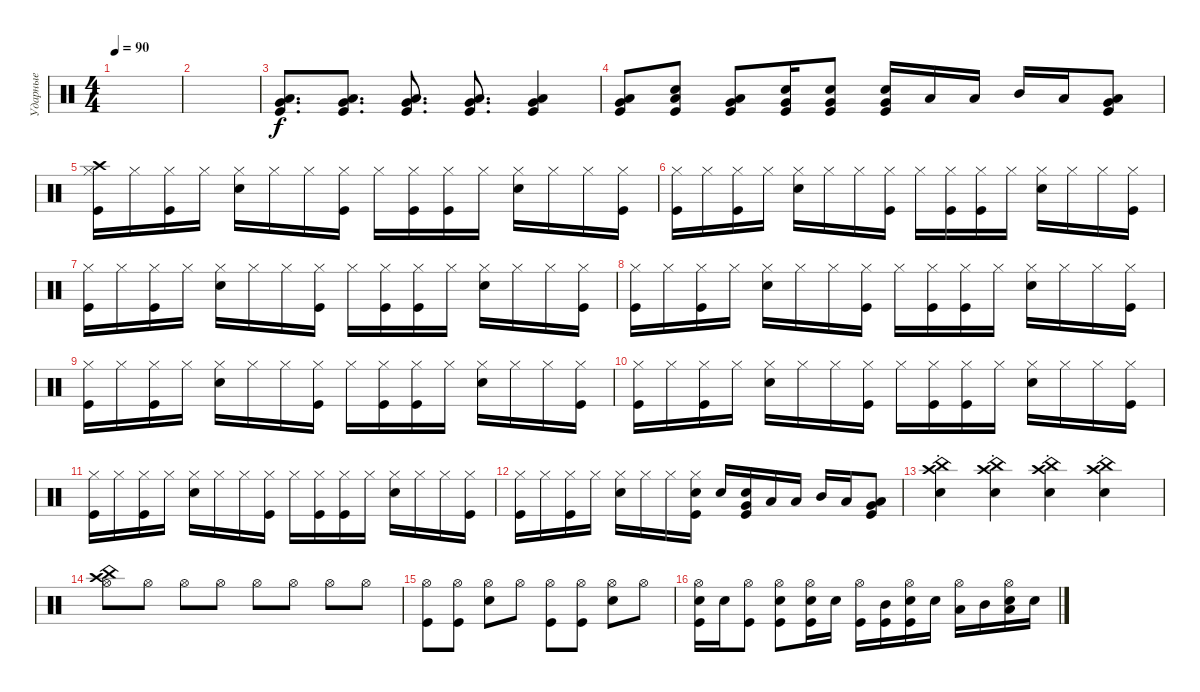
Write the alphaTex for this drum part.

\track ("Ударные" "Ударные") {instrument percussion}
\staff {score}
\articulation defaults
\ts (4 4)
\tempo 90
\clef neutral
\ks c
|
|
("Very Low Tom (hit)" "Low Floor Tom (hit)" "Kick (hit)").8{d} ("Very Low Tom (hit)" "Low Floor Tom (hit)" "Kick (hit)").8{d} ("Very Low Tom (hit)" "Low Floor Tom (hit)" "Kick (hit)").8{d} ("Very Low Tom (hit)" "Low Floor Tom (hit)" "Kick (hit)").8{d} ("Very Low Tom (hit)" "Low Floor Tom (hit)" "Kick (hit)").4 |
("Very Low Tom (hit)" "Low Floor Tom (hit)" "Kick (hit)").8 ("Low Floor Tom (hit)" "Snare (hit) 2" "Kick (hit)").8 ("Very Low Tom (hit)" "Low Floor Tom (hit)" "Kick (hit)").8 ("Snare (hit) 2" "Very Low Tom (hit)" "Kick (hit)").16 ("Snare (hit) 2" "Very Low Tom (hit)" "Kick (hit)").8 ("Snare (hit) 2" "Very Low Tom (hit)" "Kick (hit)").16 "Low Tom (hit)".16 "Low Tom (hit)".16 "Mid Tom (hit)".16 "Low Tom (hit)".16 ("Very Low Tom (hit)" "Low Floor Tom (hit)" "Kick (hit)").8 |
("Crash high (hit)" "Hi-Hat (closed)" "Kick (hit)").16 "Hi-Hat (closed)".16 ("Hi-Hat (closed)" "Kick (hit)").16 "Hi-Hat (closed)".16 ("Hi-Hat (closed)" "Snare (hit) 2").16 "Hi-Hat (closed)".16 "Hi-Hat (closed)".16 ("Hi-Hat (closed)" "Kick (hit)").16 "Hi-Hat (closed)".16 ("Hi-Hat (closed)" "Kick (hit)").16 ("Hi-Hat (closed)" "Kick (hit)").16 "Hi-Hat (closed)".16 ("Hi-Hat (closed)" "Snare (hit) 2").16 "Hi-Hat (closed)".16 "Hi-Hat (closed)".16 ("Hi-Hat (closed)" "Kick (hit)").16 |
("Hi-Hat (closed)" "Kick (hit)").16 "Hi-Hat (closed)".16 ("Hi-Hat (closed)" "Kick (hit)").16 "Hi-Hat (closed)".16 ("Hi-Hat (closed)" "Snare (hit) 2").16 "Hi-Hat (closed)".16 "Hi-Hat (closed)".16 ("Hi-Hat (closed)" "Kick (hit)").16 "Hi-Hat (closed)".16 ("Hi-Hat (closed)" "Kick (hit)").16 ("Hi-Hat (closed)" "Kick (hit)").16 "Hi-Hat (closed)".16 ("Hi-Hat (closed)" "Snare (hit) 2").16 "Hi-Hat (closed)".16 "Hi-Hat (closed)".16 ("Hi-Hat (closed)" "Kick (hit)").16 |
("Hi-Hat (closed)" "Kick (hit)").16 "Hi-Hat (closed)".16 ("Hi-Hat (closed)" "Kick (hit)").16 "Hi-Hat (closed)".16 ("Hi-Hat (closed)" "Snare (hit) 2").16 "Hi-Hat (closed)".16 "Hi-Hat (closed)".16 ("Hi-Hat (closed)" "Kick (hit)").16 "Hi-Hat (closed)".16 ("Hi-Hat (closed)" "Kick (hit)").16 ("Hi-Hat (closed)" "Kick (hit)").16 "Hi-Hat (closed)".16 ("Hi-Hat (closed)" "Snare (hit) 2").16 "Hi-Hat (closed)".16 "Hi-Hat (closed)".16 ("Hi-Hat (closed)" "Kick (hit)").16 |
("Hi-Hat (closed)" "Kick (hit)").16 "Hi-Hat (closed)".16 ("Hi-Hat (closed)" "Kick (hit)").16 "Hi-Hat (closed)".16 ("Hi-Hat (closed)" "Snare (hit) 2").16 "Hi-Hat (closed)".16 "Hi-Hat (closed)".16 ("Hi-Hat (closed)" "Kick (hit)").16 "Hi-Hat (closed)".16 ("Hi-Hat (closed)" "Kick (hit)").16 ("Hi-Hat (closed)" "Kick (hit)").16 "Hi-Hat (closed)".16 ("Hi-Hat (closed)" "Snare (hit) 2").16 "Hi-Hat (closed)".16 "Hi-Hat (closed)".16 ("Hi-Hat (closed)" "Kick (hit)").16 |
("Hi-Hat (closed)" "Kick (hit)").16 "Hi-Hat (closed)".16 ("Hi-Hat (closed)" "Kick (hit)").16 "Hi-Hat (closed)".16 ("Hi-Hat (closed)" "Snare (hit) 2").16 "Hi-Hat (closed)".16 "Hi-Hat (closed)".16 ("Hi-Hat (closed)" "Kick (hit)").16 "Hi-Hat (closed)".16 ("Hi-Hat (closed)" "Kick (hit)").16 ("Hi-Hat (closed)" "Kick (hit)").16 "Hi-Hat (closed)".16 ("Hi-Hat (closed)" "Snare (hit) 2").16 "Hi-Hat (closed)".16 "Hi-Hat (closed)".16 ("Hi-Hat (closed)" "Kick (hit)").16 |
("Hi-Hat (closed)" "Kick (hit)").16 "Hi-Hat (closed)".16 ("Hi-Hat (closed)" "Kick (hit)").16 "Hi-Hat (closed)".16 ("Hi-Hat (closed)" "Snare (hit) 2").16 "Hi-Hat (closed)".16 "Hi-Hat (closed)".16 ("Hi-Hat (closed)" "Kick (hit)").16 "Hi-Hat (closed)".16 ("Hi-Hat (closed)" "Kick (hit)").16 ("Hi-Hat (closed)" "Kick (hit)").16 "Hi-Hat (closed)".16 ("Hi-Hat (closed)" "Snare (hit) 2").16 "Hi-Hat (closed)".16 "Hi-Hat (closed)".16 ("Hi-Hat (closed)" "Kick (hit)").16 |
("Hi-Hat (closed)" "Kick (hit)").16 "Hi-Hat (closed)".16 ("Hi-Hat (closed)" "Kick (hit)").16 "Hi-Hat (closed)".16 ("Hi-Hat (closed)" "Snare (hit) 2").16 "Hi-Hat (closed)".16 "Hi-Hat (closed)".16 ("Hi-Hat (closed)" "Kick (hit)").16 "Hi-Hat (closed)".16 ("Hi-Hat (closed)" "Kick (hit)").16 ("Hi-Hat (closed)" "Kick (hit)").16 "Hi-Hat (closed)".16 ("Hi-Hat (closed)" "Snare (hit) 2").16 "Hi-Hat (closed)".16 "Hi-Hat (closed)".16 ("Hi-Hat (closed)" "Kick (hit)").16 |
("Hi-Hat (closed)" "Kick (hit)").16 "Hi-Hat (closed)".16 ("Hi-Hat (closed)" "Kick (hit)").16 "Hi-Hat (closed)".16 ("Hi-Hat (closed)" "Snare (hit) 2").16 "Hi-Hat (closed)".16 "Hi-Hat (closed)".16 ("Hi-Hat (closed)" "Kick (hit)" "Snare (hit) 2").16 "Snare (hit) 2".16 ("Snare (hit) 2" "Very Low Tom (hit)" "Kick (hit)").16 "Low Tom (hit)".16 "Low Tom (hit)".16 "Mid Tom (hit)".16 "Low Tom (hit)".16 ("Very Low Tom (hit)" "Low Floor Tom (hit)" "Kick (hit)").8 |
("Crash high (hit)"{st} "China (hit)"{st} "Snare (hit) 2"{st}).4 ("Crash high (hit)"{st} "China (hit)"{st} "Snare (hit) 2"{st}).4 ("Crash high (hit)"{st} "China (hit)"{st} "Snare (hit) 2"{st}).4 ("Crash high (hit)"{st} "China (hit)"{st} "Snare (hit) 2"{st}).4 |
("Crash high (hit)" "China (hit)" "Hi-Hat (open)").8 "Hi-Hat (open)".8 "Hi-Hat (open)".8 "Hi-Hat (open)".8 "Hi-Hat (open)".8 "Hi-Hat (open)".8 "Hi-Hat (open)".8 "Hi-Hat (open)".8 |
("Hi-Hat (open)" "Kick (hit)").8 ("Hi-Hat (open)" "Kick (hit)").8 ("Hi-Hat (open)" "Snare (hit) 2").8 "Hi-Hat (open)".8 ("Hi-Hat (open)" "Kick (hit)").8 ("Hi-Hat (open)" "Kick (hit)").8 ("Hi-Hat (open)" "Snare (hit) 2").8 "Hi-Hat (open)".8 |
("Hi-Hat (open)" "Kick (hit)" "Snare (hit) 2").16 "Snare (hit) 2".16 ("Hi-Hat (open)" "Kick (hit)").8 ("Hi-Hat (open)" "Kick (hit)" "Snare (hit) 2").8 ("Hi-Hat (open)" "Kick (hit)" "Snare (hit) 2").16 "Snare (hit) 2".16 ("Hi-Hat (open)" "Kick (hit)").16 ("Mid Tom (hit)" "Kick (hit)").16 ("Hi-Hat (open)" "Kick (hit)" "Snare (hit) 2").16 "Snare (hit) 2".16 ("Hi-Hat (open)" "Low Tom (hit)").16 "Mid Tom (hit)".16 ("Low Tom (hit)" "Snare (hit) 2" "Hi-Hat (open)").16 "Snare (hit) 2".16
